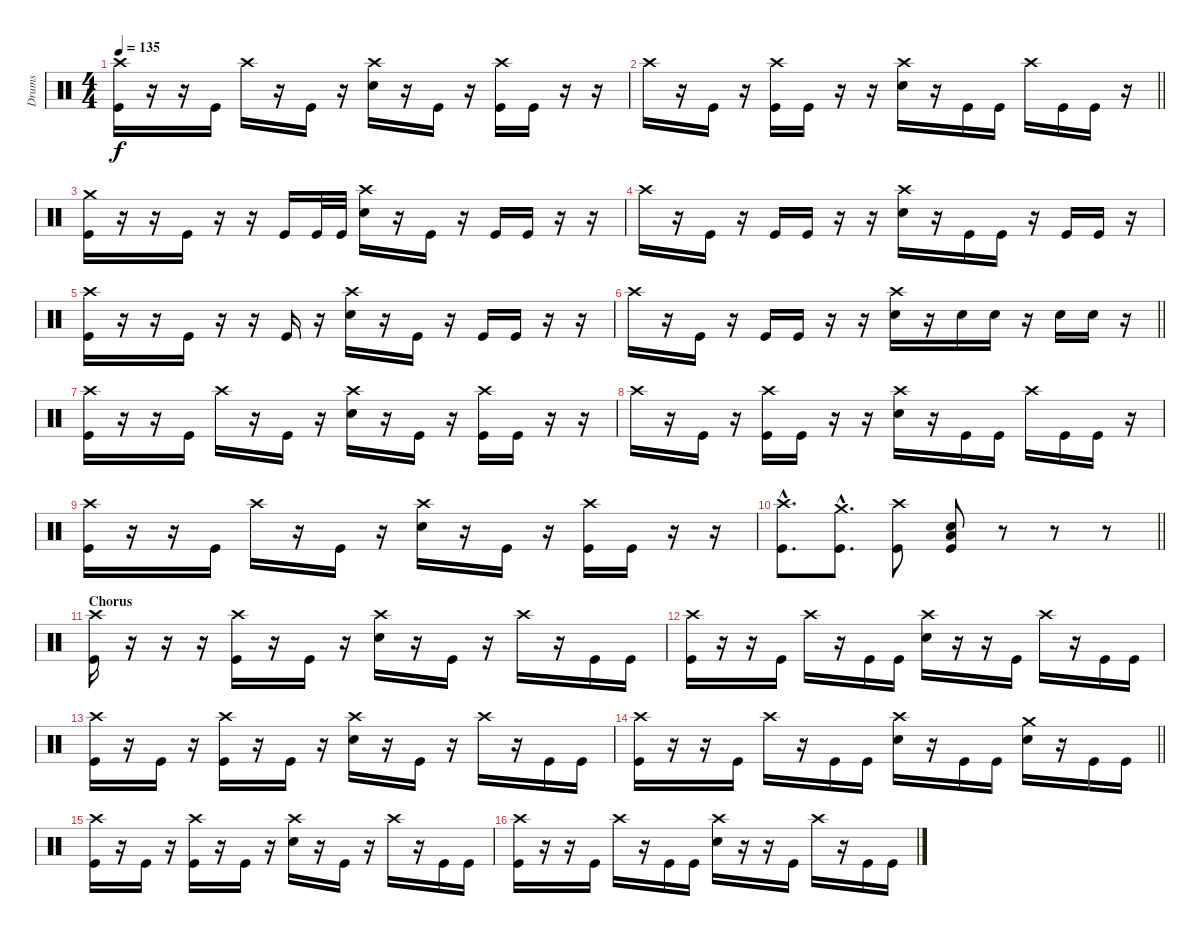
\track ("Drums" "Drums") {instrument percussion}
\staff {score}
\articulation defaults
\ts (4 4)
\tempo 135
\clef neutral
\ks c
("Crash high (hit)" "Kick (hit)").16{dy f} r.16 r.16 "Kick (hit)".16 "Crash high (hit)".16 r.16 "Kick (hit)".16 r.16 ("Crash high (hit)" "Snare (hit) 2").16 r.16 "Kick (hit)".16 r.16 ("Crash high (hit)" "Kick (hit)").16 "Kick (hit)".16 r.16 r.16 |
\barLineRight lightlight "Crash high (hit)".16
r.16 "Kick (hit)".16 r.16 ("Crash high (hit)" "Kick (hit)").16 "Kick (hit)".16 r.16 r.16 ("Crash high (hit)" "Snare (hit) 2").16 r.16 "Kick (hit)".16 "Kick (hit)".16 "Crash high (hit)".16 "Kick (hit)".16 "Kick (hit)".16 r.16 |
("Crash medium (hit)" "Kick (hit)").16 r.16 r.16 "Kick (hit)".16 r.16 r.16 "Kick (hit)".16 "Kick (hit)".32 "Kick (hit)".32 ("Crash high (hit)" "Snare (hit) 2").16 r.16 "Kick (hit)".16 r.16 "Kick (hit)".16 "Kick (hit)".16 r.16 r.16 |
"Crash high (hit)".16 r.16 "Kick (hit)".16 r.16 "Kick (hit)".16 "Kick (hit)".16 r.16 r.16 ("Crash high (hit)" "Snare (hit) 2").16 r.16 "Kick (hit)".16 "Kick (hit)".16 r.16 "Kick (hit)".16 "Kick (hit)".16 r.16 |
("Crash high (hit)" "Kick (hit)").16 r.16 r.16 "Kick (hit)".16 r.16 r.16 "Kick (hit)".16 r.16 ("Crash high (hit)" "Snare (hit) 2").16 r.16 "Kick (hit)".16 r.16 "Kick (hit)".16 "Kick (hit)".16 r.16 r.16 |
\barLineRight lightlight "Crash high (hit)".16
r.16 "Kick (hit)".16 r.16 "Kick (hit)".16 "Kick (hit)".16 r.16 r.16 ("Crash high (hit)" "Snare (hit) 2").16 r.16 "Snare (hit) 2".16 "Snare (hit) 2".16 r.16 "Snare (hit) 2".16 "Snare (hit) 2".16 r.16 |
("Crash high (hit)" "Kick (hit)").16 r.16 r.16 "Kick (hit)".16 "Crash high (hit)".16 r.16 "Kick (hit)".16 r.16 ("Crash high (hit)" "Snare (hit) 2").16 r.16 "Kick (hit)".16 r.16 ("Crash high (hit)" "Kick (hit)").16 "Kick (hit)".16 r.16 r.16 |
"Crash high (hit)".16 r.16 "Kick (hit)".16 r.16 ("Crash high (hit)" "Kick (hit)").16 "Kick (hit)".16 r.16 r.16 ("Crash high (hit)" "Snare (hit) 2").16 r.16 "Kick (hit)".16 "Kick (hit)".16 "Crash high (hit)".16 "Kick (hit)".16 "Kick (hit)".16 r.16 |
("Crash high (hit)" "Kick (hit)").16 r.16 r.16 "Kick (hit)".16 "Crash high (hit)".16 r.16 "Kick (hit)".16 r.16 ("Crash high (hit)" "Snare (hit) 2").16 r.16 "Kick (hit)".16 r.16 ("Crash high (hit)" "Kick (hit)").16 "Kick (hit)".16 r.16 r.16 |
\barLineRight lightlight
("Crash high (hit)"{hac} "Kick (hit)"{hac}).8{d} ("Crash medium (hit)"{hac} "Kick (hit)"{hac}).8{d} ("Crash high (hit)" "Kick (hit)").8 ("Low Floor Tom (hit)" "Kick (hit)" "Snare (hit) 2").8 r.8 r.8 r.8 |
\section ("" "Chorus")
("Crash high (hit)" "Kick (hit)").16 r.16 r.16 r.16 ("Crash high (hit)" "Kick (hit)").16 r.16 "Kick (hit)".16 r.16 ("Crash high (hit)" "Snare (hit) 2").16 r.16 "Kick (hit)".16 r.16 "Crash high (hit)".16 r.16 "Kick (hit)".16 "Kick (hit)".16 |
("Crash high (hit)" "Kick (hit)").16 r.16 r.16 "Kick (hit)".16 "Crash high (hit)".16 r.16 "Kick (hit)".16 "Kick (hit)".16 ("Crash high (hit)" "Snare (hit) 2").16 r.16 r.16 "Kick (hit)".16 "Crash high (hit)".16 r.16 "Kick (hit)".16 "Kick (hit)".16 |
("Crash high (hit)" "Kick (hit)").16 r.16 "Kick (hit)".16 r.16 ("Crash high (hit)" "Kick (hit)").16 r.16 "Kick (hit)".16 r.16 ("Crash high (hit)" "Snare (hit) 2").16 r.16 "Kick (hit)".16 r.16 "Crash high (hit)".16 r.16 "Kick (hit)".16 "Kick (hit)".16 |
\barLineRight lightlight
("Crash high (hit)" "Kick (hit)").16 r.16 r.16 "Kick (hit)".16 "Crash high (hit)".16 r.16 "Kick (hit)".16 "Kick (hit)".16 ("Crash high (hit)" "Snare (hit) 2").16 r.16 "Kick (hit)".16 "Kick (hit)".16 ("Crash medium (hit)" "Snare (hit) 2").16 r.16 "Kick (hit)".16 "Kick (hit)".16 |
("Crash high (hit)" "Kick (hit)").16 r.16 "Kick (hit)".16 r.16 ("Crash high (hit)" "Kick (hit)").16 r.16 "Kick (hit)".16 r.16 ("Crash high (hit)" "Snare (hit) 2").16 r.16 "Kick (hit)".16 r.16 "Crash high (hit)".16 r.16 "Kick (hit)".16 "Kick (hit)".16 |
("Crash high (hit)" "Kick (hit)").16 r.16 r.16 "Kick (hit)".16 "Crash high (hit)".16 r.16 "Kick (hit)".16 "Kick (hit)".16 ("Crash high (hit)" "Snare (hit) 2").16 r.16 r.16 "Kick (hit)".16 "Crash high (hit)".16 r.16 "Kick (hit)".16 "Kick (hit)".16
